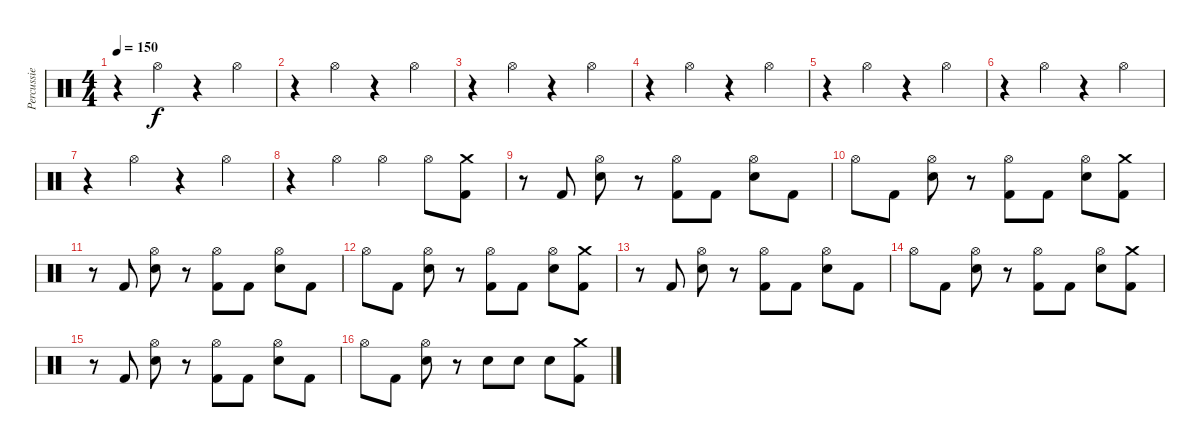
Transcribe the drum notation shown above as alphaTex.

\track ("Percussie" "Percussie") {instrument percussion}
\staff {score}
\articulation defaults
\ts (4 4)
\tempo 150
\clef neutral
\ks c
r.4{dy f} "Hi-Hat (open)".4 r.4 "Hi-Hat (open)".4 |
r.4 "Hi-Hat (open)".4 r.4 "Hi-Hat (open)".4 |
r.4 "Hi-Hat (open)".4 r.4 "Hi-Hat (open)".4 |
r.4 "Hi-Hat (open)".4 r.4 "Hi-Hat (open)".4 |
r.4 "Hi-Hat (open)".4 r.4 "Hi-Hat (open)".4 |
r.4 "Hi-Hat (open)".4 r.4 "Hi-Hat (open)".4 |
r.4 "Hi-Hat (open)".4 r.4 "Hi-Hat (open)".4 |
r.4 "Hi-Hat (open)".4 "Hi-Hat (open)".4 "Hi-Hat (open)".8 ("Crash medium (hit)" "Kick (hit) 2").8 |
r.8 "Kick (hit) 2".8 ("Hi-Hat (open)" "Snare (hit) 2").8 r.8 ("Hi-Hat (open)" "Kick (hit) 2").8 "Kick (hit) 2".8 ("Hi-Hat (open)" "Snare (hit) 2").8 "Kick (hit) 2".8 |
"Hi-Hat (open)".8 "Kick (hit) 2".8 ("Hi-Hat (open)" "Snare (hit) 2").8 r.8 ("Hi-Hat (open)" "Kick (hit) 2").8 "Kick (hit) 2".8 ("Hi-Hat (open)" "Snare (hit) 2").8 ("Crash medium (hit)" "Kick (hit) 2").8 |
r.8 "Kick (hit) 2".8 ("Hi-Hat (open)" "Snare (hit) 2").8 r.8 ("Hi-Hat (open)" "Kick (hit) 2").8 "Kick (hit) 2".8 ("Hi-Hat (open)" "Snare (hit) 2").8 "Kick (hit) 2".8 |
"Hi-Hat (open)".8 "Kick (hit) 2".8 ("Hi-Hat (open)" "Snare (hit) 2").8 r.8 ("Hi-Hat (open)" "Kick (hit) 2").8 "Kick (hit) 2".8 ("Hi-Hat (open)" "Snare (hit) 2").8 ("Crash medium (hit)" "Kick (hit) 2").8 |
r.8 "Kick (hit) 2".8 ("Hi-Hat (open)" "Snare (hit) 2").8 r.8 ("Hi-Hat (open)" "Kick (hit) 2").8 "Kick (hit) 2".8 ("Hi-Hat (open)" "Snare (hit) 2").8 "Kick (hit) 2".8 |
"Hi-Hat (open)".8 "Kick (hit) 2".8 ("Hi-Hat (open)" "Snare (hit) 2").8 r.8 ("Hi-Hat (open)" "Kick (hit) 2").8 "Kick (hit) 2".8 ("Hi-Hat (open)" "Snare (hit) 2").8 ("Crash medium (hit)" "Kick (hit) 2").8 |
r.8 "Kick (hit) 2".8 ("Hi-Hat (open)" "Snare (hit) 2").8 r.8 ("Hi-Hat (open)" "Kick (hit) 2").8 "Kick (hit) 2".8 ("Hi-Hat (open)" "Snare (hit) 2").8 "Kick (hit) 2".8 |
"Hi-Hat (open)".8 "Kick (hit) 2".8 ("Hi-Hat (open)" "Snare (hit) 2").8 r.8 "Snare (hit) 2".8 "Snare (hit) 2".8 "Snare (hit) 2".8 ("Crash medium (hit)" "Kick (hit) 2").8
